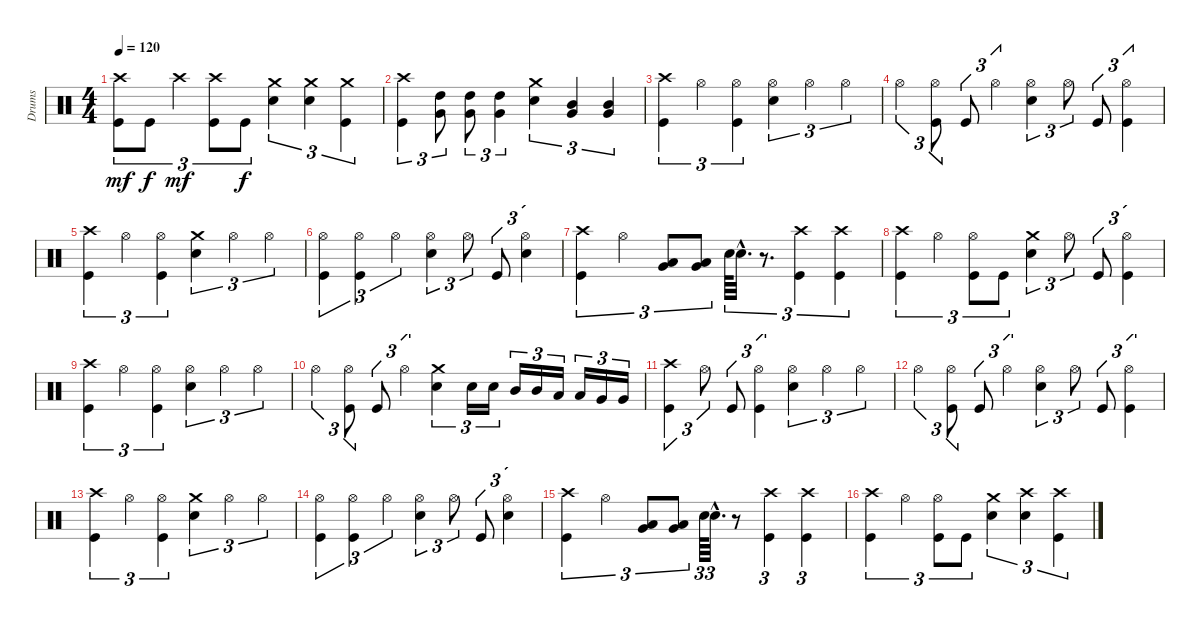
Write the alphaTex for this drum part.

\track ("Drums" "Drums") {instrument percussion}
\staff {score}
\articulation defaults
\ts (4 4)
\tempo 120
\clef neutral
\ks c
("Crash high (hit)" "Kick (hit)").8{tu (3 2) dy mf} "Kick (hit)".8{tu (3 2) dy f} "Crash high (hit)".4{tu (3 2) dy mf} ("Crash high (hit)" "Kick (hit)").8{tu (3 2)} "Kick (hit)".8{tu (3 2) dy f} ("Crash medium (hit)" "Electric Snare (hit)").4{tu (3 2)} ("Crash medium (hit)" "Electric Snare (hit)").4{tu (3 2)} ("Crash medium (hit)" "Kick (hit)").4{tu (3 2)} |
("Crash high (hit)" "Kick (hit)").4{tu (3 2)} ("High Tom (hit)" "Very Low Tom (hit)").8{tu (3 2)} ("High Tom (hit)" "Very Low Tom (hit)").8{tu (3 2)} ("High Tom (hit)" "Very Low Tom (hit)").4{tu (3 2)} ("Crash medium (hit)" "Electric Snare (hit)").4{tu (3 2)} ("Mid Tom (hit)" "Very Low Tom (hit)").4{tu (3 2)} ("Mid Tom (hit)" "Very Low Tom (hit)").4{tu (3 2)} |
("Crash high (hit)" "Kick (hit)").4{tu (3 2)} "Hi-Hat (open)".4{tu (3 2)} ("Hi-Hat (open)" "Kick (hit)").4{tu (3 2)} ("Hi-Hat (open)" "Electric Snare (hit)").4{tu (3 2)} "Hi-Hat (open)".4{tu (3 2)} "Hi-Hat (open)".4{tu (3 2)} |
"Hi-Hat (open)".4{tu (3 2)} ("Hi-Hat (open)" "Kick (hit)").8{tu (3 2)} "Kick (hit)".8{tu (3 2)} "Hi-Hat (open)".4{tu (3 2)} ("Hi-Hat (open)" "Electric Snare (hit)").4{tu (3 2)} "Hi-Hat (open)".8{tu (3 2)} "Kick (hit)".8{tu (3 2)} ("Hi-Hat (open)" "Kick (hit)").4{tu (3 2)} |
("Crash high (hit)" "Kick (hit)").4{tu (3 2)} "Hi-Hat (open)".4{tu (3 2)} ("Hi-Hat (open)" "Kick (hit)").4{tu (3 2)} ("Crash medium (hit)" "Electric Snare (hit)").4{tu (3 2)} "Hi-Hat (open)".4{tu (3 2)} "Hi-Hat (open)".4{tu (3 2)} |
("Hi-Hat (open)" "Kick (hit)").4{tu (3 2)} ("Hi-Hat (open)" "Kick (hit)").4{tu (3 2)} "Hi-Hat (open)".4{tu (3 2)} ("Hi-Hat (open)" "Electric Snare (hit)").4{tu (3 2)} "Hi-Hat (open)".8{tu (3 2)} "Kick (hit)".8{tu (3 2)} ("Hi-Hat (open)" "Electric Snare (hit)").4{tu (3 2)} |
("Crash high (hit)" "Kick (hit)").4{tu (3 2)} "Hi-Hat (open)".4{tu (3 2)} ("Low Tom (hit)" "Very Low Tom (hit)").8{tu (3 2)} ("Low Tom (hit)" "Very Low Tom (hit)").8{tu (3 2)} "Electric Snare (hit)".64{tu (3 2)} "Electric Snare (hit)"{hac}.32{d tu (3 2)} r.8{d tu (3 2)} ("Crash high (hit)" "Kick (hit)").4{tu (3 2)} ("Crash high (hit)" "Kick (hit)").4{tu (3 2)} |
("Crash high (hit)" "Kick (hit)").4{tu (3 2)} "Hi-Hat (open)".4{tu (3 2)} ("Hi-Hat (open)" "Kick (hit)").8{tu (3 2)} "Kick (hit)".8{tu (3 2)} ("Crash medium (hit)" "Electric Snare (hit)").4{tu (3 2)} "Hi-Hat (open)".8{tu (3 2)} "Kick (hit)".8{tu (3 2)} ("Hi-Hat (open)" "Kick (hit)").4{tu (3 2)} |
("Crash high (hit)" "Kick (hit)").4{tu (3 2)} "Hi-Hat (open)".4{tu (3 2)} ("Hi-Hat (open)" "Kick (hit)").4{tu (3 2)} ("Hi-Hat (open)" "Electric Snare (hit)").4{tu (3 2)} "Hi-Hat (open)".4{tu (3 2)} "Hi-Hat (open)".4{tu (3 2)} |
"Hi-Hat (open)".4{tu (3 2)} ("Hi-Hat (open)" "Kick (hit)").8{tu (3 2)} "Kick (hit)".8{tu (3 2)} "Hi-Hat (open)".4{tu (3 2)} ("Crash medium (hit)" "Electric Snare (hit)").4{tu (3 2)} "Electric Snare (hit)".16{tu (3 2)} "Electric Snare (hit)".16{tu (3 2)} "Mid Tom (hit)".16{tu (3 2)} "Mid Tom (hit)".16{tu (3 2)} "Low Tom (hit)".16{tu (3 2)} "Low Tom (hit)".16{tu (3 2)} "Very Low Tom (hit)".16{tu (3 2)} "Very Low Tom (hit)".16{tu (3 2)} |
("Crash high (hit)" "Kick (hit)").4{tu (3 2)} "Hi-Hat (open)".8{tu (3 2)} "Kick (hit)".8{tu (3 2)} ("Hi-Hat (open)" "Kick (hit)").4{tu (3 2)} ("Hi-Hat (open)" "Electric Snare (hit)").4{tu (3 2)} "Hi-Hat (open)".4{tu (3 2)} "Hi-Hat (open)".4{tu (3 2)} |
"Hi-Hat (open)".4{tu (3 2)} ("Hi-Hat (open)" "Kick (hit)").8{tu (3 2)} "Kick (hit)".8{tu (3 2)} "Hi-Hat (open)".4{tu (3 2)} ("Hi-Hat (open)" "Electric Snare (hit)").4{tu (3 2)} "Hi-Hat (open)".8{tu (3 2)} "Kick (hit)".8{tu (3 2)} ("Hi-Hat (open)" "Kick (hit)").4{tu (3 2)} |
("Crash high (hit)" "Kick (hit)").4{tu (3 2)} "Hi-Hat (open)".4{tu (3 2)} ("Hi-Hat (open)" "Kick (hit)").4{tu (3 2)} ("Crash medium (hit)" "Electric Snare (hit)").4{tu (3 2)} "Hi-Hat (open)".4{tu (3 2)} "Hi-Hat (open)".4{tu (3 2)} |
("Hi-Hat (open)" "Kick (hit)").4{tu (3 2)} ("Hi-Hat (open)" "Kick (hit)").4{tu (3 2)} "Hi-Hat (open)".4{tu (3 2)} ("Hi-Hat (open)" "Electric Snare (hit)").4{tu (3 2)} "Hi-Hat (open)".8{tu (3 2)} "Kick (hit)".8{tu (3 2)} ("Hi-Hat (open)" "Electric Snare (hit)").4{tu (3 2)} |
("Crash high (hit)" "Kick (hit)").4{tu (3 2)} "Hi-Hat (open)".4{tu (3 2)} ("Low Tom (hit)" "Very Low Tom (hit)").8{tu (3 2)} ("Low Tom (hit)" "Very Low Tom (hit)").8{tu (3 2)} "Electric Snare (hit)".64{tu (3 2)} "Electric Snare (hit)"{hac}.32{d tu (3 2)} r.8 ("Crash high (hit)" "Kick (hit)").4{tu (3 2)} ("Crash high (hit)" "Kick (hit)").4{tu (3 2)} |
("Crash high (hit)" "Kick (hit)").4{tu (3 2)} "Hi-Hat (open)".4{tu (3 2)} ("Hi-Hat (open)" "Kick (hit)").8{tu (3 2)} "Kick (hit)".8{tu (3 2)} ("Crash medium (hit)" "Electric Snare (hit)").4{tu (3 2)} ("Crash high (hit)" "Electric Snare (hit)").4{tu (3 2)} ("Crash high (hit)" "Kick (hit)").4{tu (3 2)}
